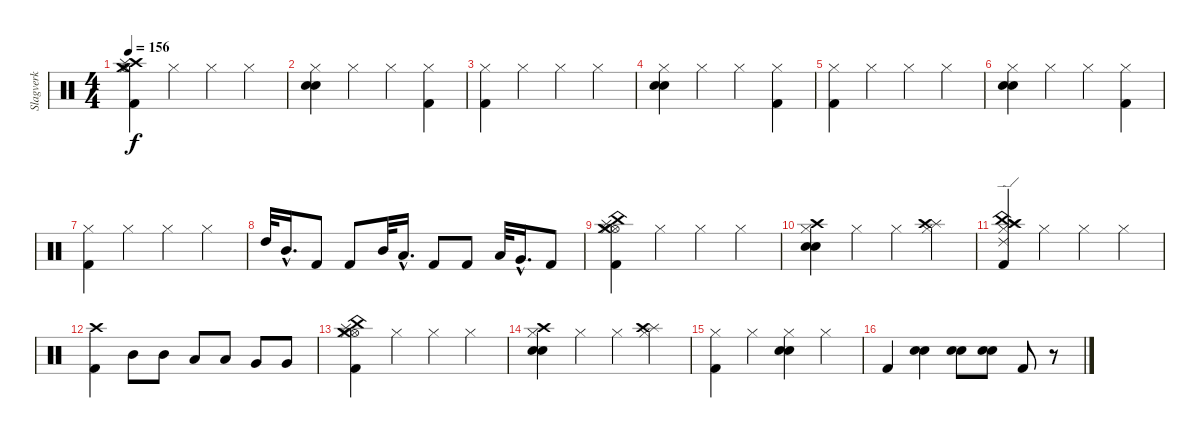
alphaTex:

\track ("Slagverk" "Slagverk") {instrument percussion}
\staff {score}
\articulation defaults
\ts (4 4)
\tempo 156
\clef neutral
\ks c
("Kick (hit) 2" "Hi-Hat (closed)" "Crash high (hit)" "Hi-Hat (open)" "Crash medium (hit)" "Splash (hit)").4{dy f} "Hi-Hat (closed)".4 "Hi-Hat (closed)".4 "Hi-Hat (closed)".4 |
("Electric Snare (hit)" "Snare (hit) 2" "Hi-Hat (closed)").4 "Hi-Hat (closed)".4 "Hi-Hat (closed)".4 ("Kick (hit) 2" "Hi-Hat (closed)").4 |
("Kick (hit) 2" "Hi-Hat (closed)").4 "Hi-Hat (closed)".4 "Hi-Hat (closed)".4 "Hi-Hat (closed)".4 |
("Electric Snare (hit)" "Snare (hit) 2" "Hi-Hat (closed)").4 "Hi-Hat (closed)".4 "Hi-Hat (closed)".4 ("Kick (hit) 2" "Hi-Hat (closed)").4 |
("Kick (hit) 2" "Hi-Hat (closed)").4 "Hi-Hat (closed)".4 "Hi-Hat (closed)".4 "Hi-Hat (closed)".4 |
("Electric Snare (hit)" "Snare (hit) 2" "Hi-Hat (closed)").4 "Hi-Hat (closed)".4 "Hi-Hat (closed)".4 ("Kick (hit) 2" "Hi-Hat (closed)").4 |
("Kick (hit) 2" "Hi-Hat (closed)").4 "Hi-Hat (closed)".4 "Hi-Hat (closed)".4 "Hi-Hat (closed)".4 |
"High Tom (hit)".32 "Mid Tom (hit)"{hac}.16{d} "Kick (hit) 2".8 "Kick (hit) 2".8 "Mid Tom (hit)".32 "Low Tom (hit)"{hac}.16{d} "Kick (hit) 2".8 "Kick (hit) 2".8 "Low Tom (hit)".32 "Very Low Tom (hit)"{hac}.16{d} "Kick (hit) 2".8 |
("Hi-Hat (open)" "Crash medium (hit)" "Splash (hit)" "China (hit)" "Kick (hit) 2" "Hi-Hat (closed)").4 "Hi-Hat (closed)".4 "Hi-Hat (closed)".4 "Hi-Hat (closed)".4 |
("Crash high (hit)" "Electric Snare (hit)" "Snare (hit) 2" "Hi-Hat (closed)").4 "Hi-Hat (closed)".4 "Hi-Hat (closed)".4 ("Splash (hit)" "Crash high (hit)" "Hi-Hat (closed)").4 |
("Crash high (hit)" "China (hit)" "Ride (edge) 2" "Splash (hit)" "Kick (hit) 2" "Hi-Hat (closed)").4 "Hi-Hat (closed)".4 "Hi-Hat (closed)".4 "Hi-Hat (closed)".4 |
("Crash high (hit)" "Kick (hit) 2").4 "Mid Tom (hit)".8 "Mid Tom (hit)".8 "Low Tom (hit)".8 "Low Tom (hit)".8 "Very Low Tom (hit)".8 "Very Low Tom (hit)".8 |
("Hi-Hat (open)" "Crash medium (hit)" "Splash (hit)" "China (hit)" "Kick (hit) 2" "Hi-Hat (closed)").4 "Hi-Hat (closed)".4 "Hi-Hat (closed)".4 "Hi-Hat (closed)".4 |
("Crash high (hit)" "Electric Snare (hit)" "Snare (hit) 2" "Hi-Hat (closed)").4 "Hi-Hat (closed)".4 "Hi-Hat (closed)".4 ("Splash (hit)" "Crash high (hit)" "Hi-Hat (closed)").4 |
("Hi-Hat (closed)" "Kick (hit) 2").4 "Hi-Hat (closed)".4 ("Electric Snare (hit)" "Snare (hit) 2" "Hi-Hat (closed)").4 "Hi-Hat (closed)".4 |
"Kick (hit) 2".4 ("Electric Snare (hit)" "Snare (hit) 2").4 ("Electric Snare (hit)" "Snare (hit) 2").8 ("Snare (hit) 2" "Electric Snare (hit)").8 "Kick (hit) 2".8 r.8
